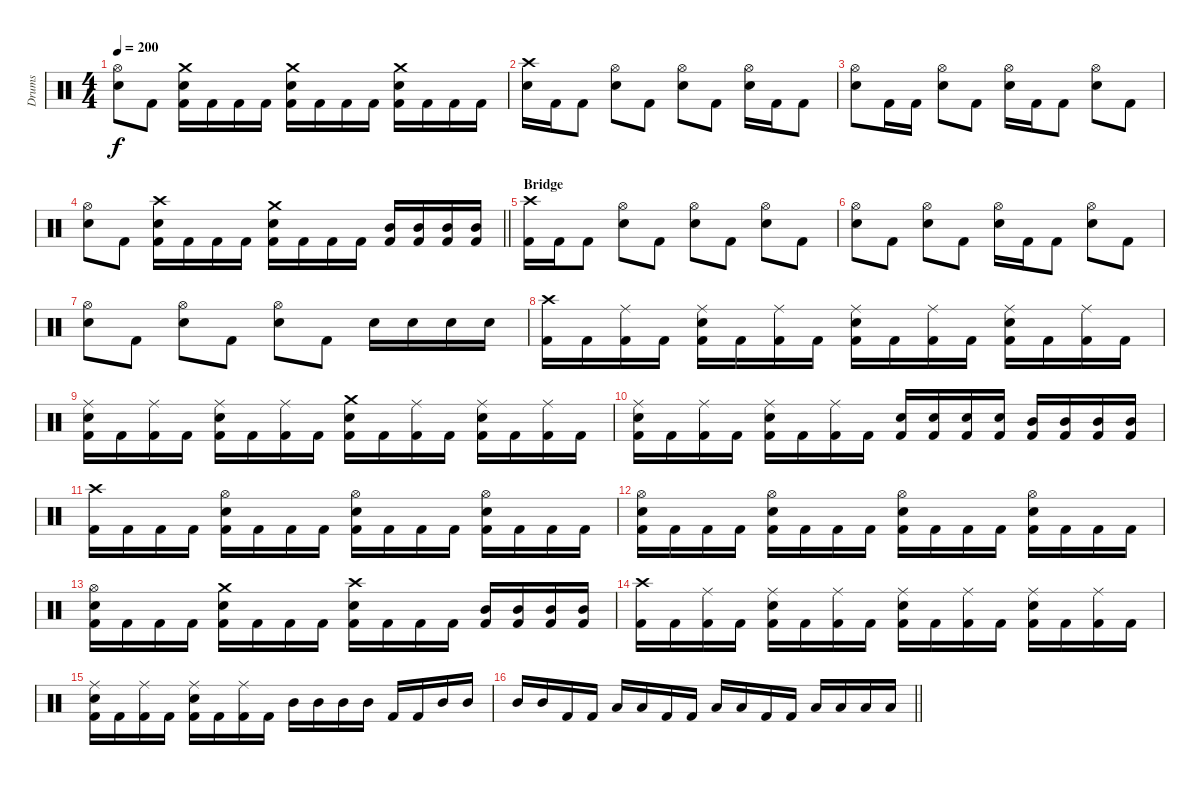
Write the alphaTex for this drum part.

\track ("Drums" "Drums") {instrument percussion}
\staff {score}
\articulation defaults
\ts (4 4)
\tempo 200
\clef neutral
\ks c
("Hi-Hat (open)" "Snare (hit) 2").8{dy f} "Kick (hit) 2".8 ("Crash medium (hit)" "Snare (hit) 2" "Kick (hit) 2").16 "Kick (hit) 2".16 "Kick (hit) 2".16 "Kick (hit) 2".16 ("Crash medium (hit)" "Snare (hit) 2" "Kick (hit) 2").16 "Kick (hit) 2".16 "Kick (hit) 2".16 "Kick (hit) 2".16 ("Crash medium (hit)" "Snare (hit) 2" "Kick (hit) 2").16 "Kick (hit) 2".16 "Kick (hit) 2".16 "Kick (hit) 2".16 |
("Crash high (hit)" "Snare (hit) 2").16 "Kick (hit) 2".16 "Kick (hit) 2".8 ("Hi-Hat (open)" "Snare (hit) 2").8 "Kick (hit) 2".8 ("Hi-Hat (open)" "Snare (hit) 2").8 "Kick (hit) 2".8 ("Hi-Hat (open)" "Snare (hit) 2").16 "Kick (hit) 2".16 "Kick (hit) 2".8 |
("Hi-Hat (open)" "Snare (hit) 2").8 "Kick (hit) 2".16 "Kick (hit) 2".16 ("Hi-Hat (open)" "Snare (hit) 2").8 "Kick (hit) 2".8 ("Hi-Hat (open)" "Snare (hit) 2").16 "Kick (hit) 2".16 "Kick (hit) 2".8 ("Hi-Hat (open)" "Snare (hit) 2").8 "Kick (hit) 2".8 |
\barLineRight lightlight
("Hi-Hat (open)" "Snare (hit) 2").8 "Kick (hit) 2".8 ("Crash high (hit)" "Snare (hit) 2" "Kick (hit) 2").16 "Kick (hit) 2".16 "Kick (hit) 2".16 "Kick (hit) 2".16 ("Crash medium (hit)" "Snare (hit) 2" "Kick (hit) 2").16 "Kick (hit) 2".16 "Kick (hit) 2".16 "Kick (hit) 2".16 ("Mid Tom (hit)" "Kick (hit) 2").16 ("Mid Tom (hit)" "Kick (hit) 2").16 ("Mid Tom (hit)" "Kick (hit) 2").16 ("Mid Tom (hit)" "Kick (hit) 2").16 |
\section ("" "Bridge")
("Crash high (hit)" "Kick (hit) 2").16 "Kick (hit) 2".16 "Kick (hit) 2".8 ("Hi-Hat (open)" "Snare (hit) 2").8 "Kick (hit) 2".8 ("Hi-Hat (open)" "Snare (hit) 2").8 "Kick (hit) 2".8 ("Hi-Hat (open)" "Snare (hit) 2").8 "Kick (hit) 2".8 |
("Hi-Hat (open)" "Snare (hit) 2").8 "Kick (hit) 2".8 ("Hi-Hat (open)" "Snare (hit) 2").8 "Kick (hit) 2".8 ("Hi-Hat (open)" "Snare (hit) 2").16 "Kick (hit) 2".16 "Kick (hit) 2".8 ("Hi-Hat (open)" "Snare (hit) 2").8 "Kick (hit) 2".8 |
("Hi-Hat (open)" "Snare (hit) 2").8 "Kick (hit) 2".8 ("Hi-Hat (open)" "Snare (hit) 2").8 "Kick (hit) 2".8 ("Hi-Hat (open)" "Snare (hit) 2").8 "Kick (hit) 2".8 "Snare (hit) 2".16 "Snare (hit) 2".16 "Snare (hit) 2".16 "Snare (hit) 2".16 |
("Crash high (hit)" "Kick (hit) 2").16 "Kick (hit) 2".16 ("Ride (middle)" "Kick (hit) 2").16 "Kick (hit) 2".16 ("Ride (middle)" "Snare (hit) 2" "Kick (hit) 2").16 "Kick (hit) 2".16 ("Ride (middle)" "Kick (hit) 2").16 "Kick (hit) 2".16 ("Ride (middle)" "Snare (hit) 2" "Kick (hit) 2").16 "Kick (hit) 2".16 ("Ride (middle)" "Kick (hit) 2").16 "Kick (hit) 2".16 ("Ride (middle)" "Snare (hit) 2" "Kick (hit) 2").16 "Kick (hit) 2".16 ("Ride (middle)" "Kick (hit) 2").16 "Kick (hit) 2".16 |
("Ride (middle)" "Snare (hit) 2" "Kick (hit) 2").16 "Kick (hit) 2".16 ("Ride (middle)" "Kick (hit) 2").16 "Kick (hit) 2".16 ("Ride (middle)" "Snare (hit) 2" "Kick (hit) 2").16 "Kick (hit) 2".16 ("Ride (middle)" "Kick (hit) 2").16 "Kick (hit) 2".16 ("Crash medium (hit)" "Snare (hit) 2" "Kick (hit) 2").16 "Kick (hit) 2".16 ("Ride (middle)" "Kick (hit) 2").16 "Kick (hit) 2".16 ("Ride (middle)" "Snare (hit) 2" "Kick (hit) 2").16 "Kick (hit) 2".16 ("Ride (middle)" "Kick (hit) 2").16 "Kick (hit) 2".16 |
("Ride (middle)" "Snare (hit) 2" "Kick (hit) 2").16 "Kick (hit) 2".16 ("Ride (middle)" "Kick (hit) 2").16 "Kick (hit) 2".16 ("Ride (middle)" "Snare (hit) 2" "Kick (hit) 2").16 "Kick (hit) 2".16 ("Ride (middle)" "Kick (hit) 2").16 "Kick (hit) 2".16 ("Snare (hit) 2" "Kick (hit) 2").16 ("Snare (hit) 2" "Kick (hit) 2").16 ("Snare (hit) 2" "Kick (hit) 2").16 ("Snare (hit) 2" "Kick (hit) 2").16 ("Mid Tom (hit)" "Kick (hit) 2").16 ("Mid Tom (hit)" "Kick (hit) 2").16 ("Mid Tom (hit)" "Kick (hit) 2").16 ("Mid Tom (hit)" "Kick (hit) 2").16 |
("Crash high (hit)" "Kick (hit) 2").16 "Kick (hit) 2".16 "Kick (hit) 2".16 "Kick (hit) 2".16 ("Hi-Hat (open)" "Snare (hit) 2" "Kick (hit) 2").16 "Kick (hit) 2".16 "Kick (hit) 2".16 "Kick (hit) 2".16 ("Hi-Hat (open)" "Snare (hit) 2" "Kick (hit) 2").16 "Kick (hit) 2".16 "Kick (hit) 2".16 "Kick (hit) 2".16 ("Hi-Hat (open)" "Snare (hit) 2" "Kick (hit) 2").16 "Kick (hit) 2".16 "Kick (hit) 2".16 "Kick (hit) 2".16 |
("Hi-Hat (open)" "Snare (hit) 2" "Kick (hit) 2").16 "Kick (hit) 2".16 "Kick (hit) 2".16 "Kick (hit) 2".16 ("Hi-Hat (open)" "Snare (hit) 2" "Kick (hit) 2").16 "Kick (hit) 2".16 "Kick (hit) 2".16 "Kick (hit) 2".16 ("Hi-Hat (open)" "Snare (hit) 2" "Kick (hit) 2").16 "Kick (hit) 2".16 "Kick (hit) 2".16 "Kick (hit) 2".16 ("Hi-Hat (open)" "Snare (hit) 2" "Kick (hit) 2").16 "Kick (hit) 2".16 "Kick (hit) 2".16 "Kick (hit) 2".16 |
("Hi-Hat (open)" "Snare (hit) 2" "Kick (hit) 2").16 "Kick (hit) 2".16 "Kick (hit) 2".16 "Kick (hit) 2".16 ("Crash medium (hit)" "Snare (hit) 2" "Kick (hit) 2").16 "Kick (hit) 2".16 "Kick (hit) 2".16 "Kick (hit) 2".16 ("Crash high (hit)" "Snare (hit) 2" "Kick (hit) 2").16 "Kick (hit) 2".16 "Kick (hit) 2".16 "Kick (hit) 2".16 ("Mid Tom (hit)" "Kick (hit) 2").16 ("Mid Tom (hit)" "Kick (hit) 2").16 ("Mid Tom (hit)" "Kick (hit) 2").16 ("Mid Tom (hit)" "Kick (hit) 2").16 |
("Crash high (hit)" "Kick (hit) 2").16 "Kick (hit) 2".16 ("Ride (middle)" "Kick (hit) 2").16 "Kick (hit) 2".16 ("Ride (middle)" "Snare (hit) 2" "Kick (hit) 2").16 "Kick (hit) 2".16 ("Ride (middle)" "Kick (hit) 2").16 "Kick (hit) 2".16 ("Ride (middle)" "Snare (hit) 2" "Kick (hit) 2").16 "Kick (hit) 2".16 ("Ride (middle)" "Kick (hit) 2").16 "Kick (hit) 2".16 ("Ride (middle)" "Snare (hit) 2" "Kick (hit) 2").16 "Kick (hit) 2".16 ("Ride (middle)" "Kick (hit) 2").16 "Kick (hit) 2".16 |
("Ride (middle)" "Snare (hit) 2" "Kick (hit) 2").16 "Kick (hit) 2".16 ("Ride (middle)" "Kick (hit) 2").16 "Kick (hit) 2".16 ("Ride (middle)" "Snare (hit) 2" "Kick (hit) 2").16 "Kick (hit) 2".16 ("Ride (middle)" "Kick (hit) 2").16 "Kick (hit) 2".16 "Mid Tom (hit)".16 "Mid Tom (hit)".16 "Mid Tom (hit)".16 "Mid Tom (hit)".16 "Kick (hit) 2".16 "Kick (hit) 2".16 "Mid Tom (hit)".16 "Mid Tom (hit)".16 |
\barLineRight lightlight "Mid Tom (hit)".16 "Mid Tom (hit)".16 "Kick (hit) 2".16 "Kick (hit) 2".16 "Low Tom (hit)".16 "Low Tom (hit)".16 "Kick (hit) 2".16 "Kick (hit) 2".16 "Low Tom (hit)".16 "Low Tom (hit)".16 "Kick (hit) 2".16 "Kick (hit) 2".16 "Low Tom (hit)".16 "Low Tom (hit)".16 "Low Tom (hit)".16 "Low Tom (hit)".16
